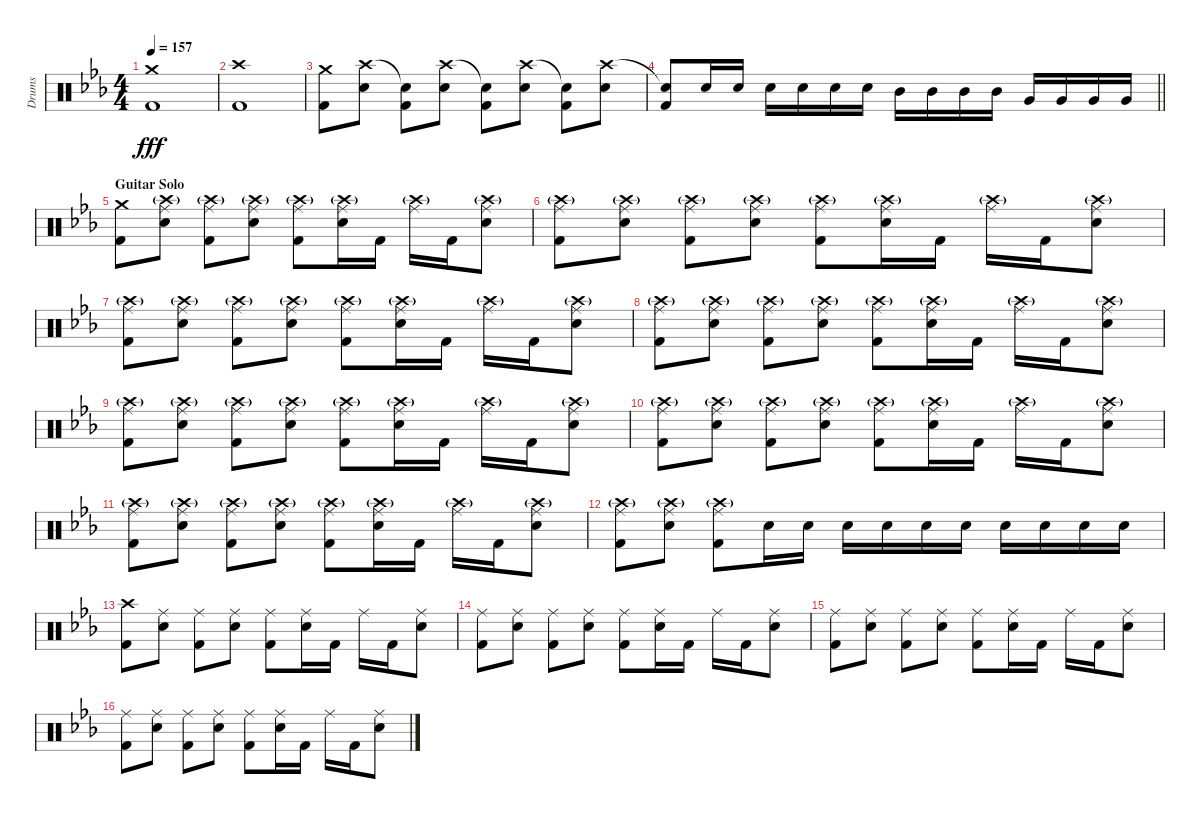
\track ("Drums" "Drums") {instrument percussion}
\staff {score}
\articulation defaults
\ts (4 4)
\tempo 157
\clef neutral
\ks eb
("Crash medium (hit)" "Kick (hit) 2").1{dy fff} |
("Crash high (hit)" "Kick (hit) 2").1 |
("Crash medium (hit)" "Kick (hit) 2").8 ("Crash high (hit)" "Snare (hit) 2").8 ("Snare (hit)"{t} "Kick (hit) 2").8 ("Crash high (hit)" "Snare (hit) 2").8 ("Snare (hit)"{t} "Kick (hit) 2").8 ("Crash high (hit)" "Snare (hit) 2").8 ("Snare (hit)"{t} "Kick (hit) 2").8 ("Crash high (hit)" "Snare (hit) 2").8 |
\barLineRight lightlight
("Snare (hit)"{t} "Kick (hit) 2").8 "Snare (hit) 2".16 "Snare (hit) 2".16 "Snare (hit) 2".16 "Snare (hit) 2".16 "Snare (hit) 2".16 "Snare (hit) 2".16 "Mid Tom (hit)".16 "Mid Tom (hit)".16 "Mid Tom (hit)".16 "Mid Tom (hit)".16 "Very Low Tom (hit)".16 "Very Low Tom (hit)".16 "Very Low Tom (hit)".16 "Very Low Tom (hit)".16 |
\section ("" "Guitar Solo")
("Crash medium (hit)" "Kick (hit) 2").8 ("Crash high (hit)"{g} "Ride (middle)" "Snare (hit) 2").8 ("Crash high (hit)"{g} "Ride (middle)" "Kick (hit) 2").8 ("Crash high (hit)"{g} "Ride (middle)" "Snare (hit) 2").8 ("Crash high (hit)"{g} "Ride (middle)" "Kick (hit) 2").8 ("Crash high (hit)"{g} "Ride (middle)" "Snare (hit) 2").16 "Kick (hit) 2".16 ("Crash high (hit)"{g} "Ride (middle)").16 "Kick (hit) 2".16 ("Crash high (hit)"{g} "Ride (middle)" "Snare (hit) 2").8 |
("Crash high (hit)"{g} "Ride (middle)" "Kick (hit) 2").8 ("Crash high (hit)"{g} "Ride (middle)" "Snare (hit) 2").8 ("Crash high (hit)"{g} "Ride (middle)" "Kick (hit) 2").8 ("Crash high (hit)"{g} "Ride (middle)" "Snare (hit) 2").8 ("Crash high (hit)"{g} "Ride (middle)" "Kick (hit) 2").8 ("Crash high (hit)"{g} "Ride (middle)" "Snare (hit) 2").16 "Kick (hit) 2".16 ("Crash high (hit)"{g} "Ride (middle)").16 "Kick (hit) 2".16 ("Crash high (hit)"{g} "Ride (middle)" "Snare (hit) 2").8 |
("Crash high (hit)"{g} "Ride (middle)" "Kick (hit) 2").8 ("Crash high (hit)"{g} "Ride (middle)" "Snare (hit) 2").8 ("Crash high (hit)"{g} "Ride (middle)" "Kick (hit) 2").8 ("Crash high (hit)"{g} "Ride (middle)" "Snare (hit) 2").8 ("Crash high (hit)"{g} "Ride (middle)" "Kick (hit) 2").8 ("Crash high (hit)"{g} "Ride (middle)" "Snare (hit) 2").16 "Kick (hit) 2".16 ("Crash high (hit)"{g} "Ride (middle)").16 "Kick (hit) 2".16 ("Crash high (hit)"{g} "Ride (middle)" "Snare (hit) 2").8 |
("Crash high (hit)"{g} "Ride (middle)" "Kick (hit) 2").8 ("Crash high (hit)"{g} "Ride (middle)" "Snare (hit) 2").8 ("Crash high (hit)"{g} "Ride (middle)" "Kick (hit) 2").8 ("Crash high (hit)"{g} "Ride (middle)" "Snare (hit) 2").8 ("Crash high (hit)"{g} "Ride (middle)" "Kick (hit) 2").8 ("Crash high (hit)"{g} "Ride (middle)" "Snare (hit) 2").16 "Kick (hit) 2".16 ("Crash high (hit)"{g} "Ride (middle)").16 "Kick (hit) 2".16 ("Crash high (hit)"{g} "Ride (middle)" "Snare (hit) 2").8 |
("Crash high (hit)"{g} "Ride (middle)" "Kick (hit) 2").8 ("Crash high (hit)"{g} "Ride (middle)" "Snare (hit) 2").8 ("Crash high (hit)"{g} "Ride (middle)" "Kick (hit) 2").8 ("Crash high (hit)"{g} "Ride (middle)" "Snare (hit) 2").8 ("Crash high (hit)"{g} "Ride (middle)" "Kick (hit) 2").8 ("Crash high (hit)"{g} "Ride (middle)" "Snare (hit) 2").16 "Kick (hit) 2".16 ("Crash high (hit)"{g} "Ride (middle)").16 "Kick (hit) 2".16 ("Crash high (hit)"{g} "Ride (middle)" "Snare (hit) 2").8 |
("Crash high (hit)"{g} "Ride (middle)" "Kick (hit) 2").8 ("Crash high (hit)"{g} "Ride (middle)" "Snare (hit) 2").8 ("Crash high (hit)"{g} "Ride (middle)" "Kick (hit) 2").8 ("Crash high (hit)"{g} "Ride (middle)" "Snare (hit) 2").8 ("Crash high (hit)"{g} "Ride (middle)" "Kick (hit) 2").8 ("Crash high (hit)"{g} "Ride (middle)" "Snare (hit) 2").16 "Kick (hit) 2".16 ("Crash high (hit)"{g} "Ride (middle)").16 "Kick (hit) 2".16 ("Crash high (hit)"{g} "Ride (middle)" "Snare (hit) 2").8 |
("Crash high (hit)"{g} "Ride (middle)" "Kick (hit) 2").8 ("Crash high (hit)"{g} "Ride (middle)" "Snare (hit) 2").8 ("Crash high (hit)"{g} "Ride (middle)" "Kick (hit) 2").8 ("Crash high (hit)"{g} "Ride (middle)" "Snare (hit) 2").8 ("Crash high (hit)"{g} "Ride (middle)" "Kick (hit) 2").8 ("Crash high (hit)"{g} "Ride (middle)" "Snare (hit) 2").16 "Kick (hit) 2".16 ("Crash high (hit)"{g} "Ride (middle)").16 "Kick (hit) 2".16 ("Crash high (hit)"{g} "Ride (middle)" "Snare (hit) 2").8 |
("Crash high (hit)"{g} "Ride (middle)" "Kick (hit) 2").8 ("Crash high (hit)"{g} "Ride (middle)" "Snare (hit) 2").8 ("Crash high (hit)"{g} "Ride (middle)" "Kick (hit) 2").8 "Snare (hit) 2".16 "Snare (hit) 2".16 "Snare (hit) 2".16 "Snare (hit) 2".16 "Snare (hit) 2".16 "Snare (hit) 2".16 "Snare (hit) 2".16 "Snare (hit) 2".16 "Snare (hit) 2".16 "Snare (hit) 2".16 |
("Crash high (hit)" "Kick (hit) 2").8 ("Ride (middle)" "Snare (hit) 2").8 ("Ride (middle)" "Kick (hit) 2").8 ("Ride (middle)" "Snare (hit) 2").8 ("Ride (middle)" "Kick (hit) 2").8 ("Ride (middle)" "Snare (hit) 2").16 "Kick (hit) 2".16 "Ride (middle)".16 "Kick (hit) 2".16 ("Ride (middle)" "Snare (hit) 2").8 |
("Ride (middle)" "Kick (hit) 2").8 ("Ride (middle)" "Snare (hit) 2").8 ("Ride (middle)" "Kick (hit) 2").8 ("Ride (middle)" "Snare (hit) 2").8 ("Ride (middle)" "Kick (hit) 2").8 ("Ride (middle)" "Snare (hit) 2").16 "Kick (hit) 2".16 "Ride (middle)".16 "Kick (hit) 2".16 ("Ride (middle)" "Snare (hit) 2").8 |
("Ride (middle)" "Kick (hit) 2").8 ("Ride (middle)" "Snare (hit) 2").8 ("Ride (middle)" "Kick (hit) 2").8 ("Ride (middle)" "Snare (hit) 2").8 ("Ride (middle)" "Kick (hit) 2").8 ("Ride (middle)" "Snare (hit) 2").16 "Kick (hit) 2".16 "Ride (middle)".16 "Kick (hit) 2".16 ("Ride (middle)" "Snare (hit) 2").8 |
("Ride (middle)" "Kick (hit) 2").8 ("Ride (middle)" "Snare (hit) 2").8 ("Ride (middle)" "Kick (hit) 2").8 ("Ride (middle)" "Snare (hit) 2").8 ("Ride (middle)" "Kick (hit) 2").8 ("Ride (middle)" "Snare (hit) 2").16 "Kick (hit) 2".16 "Ride (middle)".16 "Kick (hit) 2".16 ("Ride (middle)" "Snare (hit) 2").8
